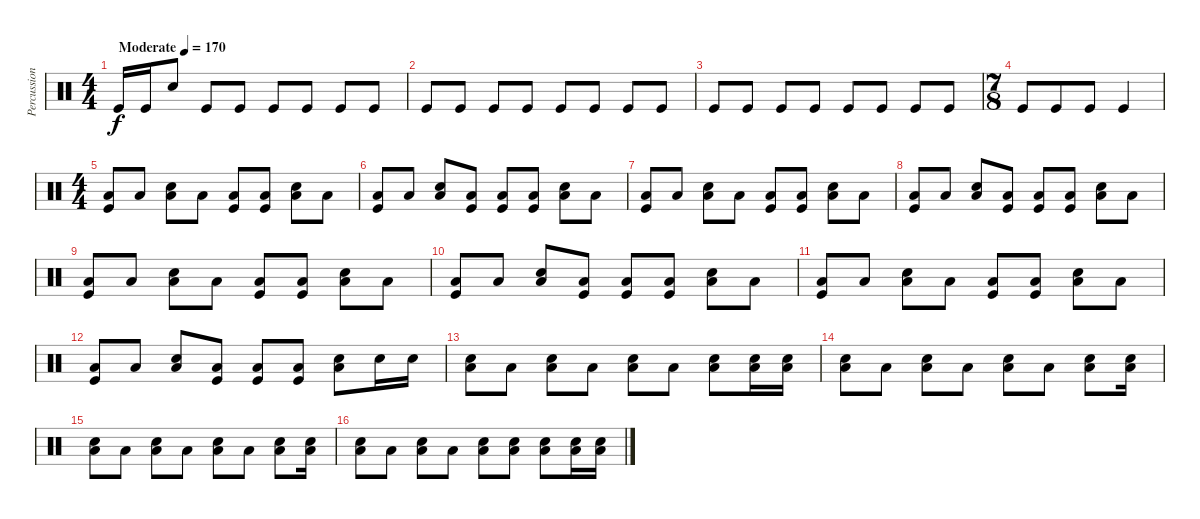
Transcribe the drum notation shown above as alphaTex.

\track ("Percussion" "Percussion") {instrument percussion}
\staff {score}
\articulation defaults
\ts (4 4)
\tempo (170 "Moderate")
\clef neutral
\ks c "Kick (hit)".16{dy f} "Kick (hit)".16 "Electric Snare (hit)".8 "Kick (hit)".8 "Kick (hit)".8 "Kick (hit)".8 "Kick (hit)".8 "Kick (hit)".8 "Kick (hit)".8
|
"Kick (hit)".8 "Kick (hit)".8 "Kick (hit)".8 "Kick (hit)".8 "Kick (hit)".8 "Kick (hit)".8 "Kick (hit)".8 "Kick (hit)".8 |
"Kick (hit)".8 "Kick (hit)".8 "Kick (hit)".8 "Kick (hit)".8 "Kick (hit)".8 "Kick (hit)".8 "Kick (hit)".8 "Kick (hit)".8 |
\ts (7 8)
"Kick (hit)".8 "Kick (hit)".8 "Kick (hit)".8 "Kick (hit)".4 |
\ts (4 4)
("Low Floor Tom (hit)" "Kick (hit)").8 "Low Floor Tom (hit)".8 ("Low Floor Tom (hit)" "Electric Snare (hit)").8 "Low Floor Tom (hit)".8 ("Low Floor Tom (hit)" "Kick (hit)").8 ("Low Floor Tom (hit)" "Kick (hit)").8 ("Low Floor Tom (hit)" "Electric Snare (hit)").8 "Low Floor Tom (hit)".8 |
("Low Floor Tom (hit)" "Kick (hit)").8 "Low Floor Tom (hit)".8 ("Low Floor Tom (hit)" "Electric Snare (hit)").8 ("Low Floor Tom (hit)" "Kick (hit)").8 ("Low Floor Tom (hit)" "Kick (hit)").8 ("Low Floor Tom (hit)" "Kick (hit)").8 ("Low Floor Tom (hit)" "Electric Snare (hit)").8 "Low Floor Tom (hit)".8 |
("Low Floor Tom (hit)" "Kick (hit)").8 "Low Floor Tom (hit)".8 ("Low Floor Tom (hit)" "Electric Snare (hit)").8 "Low Floor Tom (hit)".8 ("Low Floor Tom (hit)" "Kick (hit)").8 ("Low Floor Tom (hit)" "Kick (hit)").8 ("Low Floor Tom (hit)" "Electric Snare (hit)").8 "Low Floor Tom (hit)".8 |
("Low Floor Tom (hit)" "Kick (hit)").8 "Low Floor Tom (hit)".8 ("Low Floor Tom (hit)" "Electric Snare (hit)").8 ("Low Floor Tom (hit)" "Kick (hit)").8 ("Low Floor Tom (hit)" "Kick (hit)").8 ("Low Floor Tom (hit)" "Kick (hit)").8 ("Low Floor Tom (hit)" "Electric Snare (hit)").8 "Low Floor Tom (hit)".8 |
("Low Floor Tom (hit)" "Kick (hit)").8 "Low Floor Tom (hit)".8 ("Low Floor Tom (hit)" "Electric Snare (hit)").8 "Low Floor Tom (hit)".8 ("Low Floor Tom (hit)" "Kick (hit)").8 ("Low Floor Tom (hit)" "Kick (hit)").8 ("Low Floor Tom (hit)" "Electric Snare (hit)").8 "Low Floor Tom (hit)".8 |
("Low Floor Tom (hit)" "Kick (hit)").8 "Low Floor Tom (hit)".8 ("Low Floor Tom (hit)" "Electric Snare (hit)").8 ("Low Floor Tom (hit)" "Kick (hit)").8 ("Low Floor Tom (hit)" "Kick (hit)").8 ("Low Floor Tom (hit)" "Kick (hit)").8 ("Low Floor Tom (hit)" "Electric Snare (hit)").8 "Low Floor Tom (hit)".8 |
("Low Floor Tom (hit)" "Kick (hit)").8 "Low Floor Tom (hit)".8 ("Low Floor Tom (hit)" "Electric Snare (hit)").8 "Low Floor Tom (hit)".8 ("Low Floor Tom (hit)" "Kick (hit)").8 ("Low Floor Tom (hit)" "Kick (hit)").8 ("Low Floor Tom (hit)" "Electric Snare (hit)").8 "Low Floor Tom (hit)".8 |
("Low Floor Tom (hit)" "Kick (hit)").8 "Low Floor Tom (hit)".8 ("Low Floor Tom (hit)" "Electric Snare (hit)").8 ("Low Floor Tom (hit)" "Kick (hit)").8 ("Low Floor Tom (hit)" "Kick (hit)").8 ("Low Floor Tom (hit)" "Kick (hit)").8 ("Low Floor Tom (hit)" "Electric Snare (hit)").8 "Electric Snare (hit)".16 "Electric Snare (hit)".16 |
("Low Floor Tom (hit)" "Electric Snare (hit)").8 "Low Floor Tom (hit)".8 ("Low Floor Tom (hit)" "Electric Snare (hit)").8 "Low Floor Tom (hit)".8 ("Low Floor Tom (hit)" "Electric Snare (hit)").8 "Low Floor Tom (hit)".8 ("Low Floor Tom (hit)" "Electric Snare (hit)").8 ("Low Floor Tom (hit)" "Electric Snare (hit)").16 ("Low Floor Tom (hit)" "Electric Snare (hit)").16 |
("Low Floor Tom (hit)" "Electric Snare (hit)").8 "Low Floor Tom (hit)".8 ("Low Floor Tom (hit)" "Electric Snare (hit)").8 "Low Floor Tom (hit)".8 ("Low Floor Tom (hit)" "Electric Snare (hit)").8 "Low Floor Tom (hit)".8 ("Low Floor Tom (hit)" "Electric Snare (hit)").8 ("Low Floor Tom (hit)" "Electric Snare (hit)").16 |
("Low Floor Tom (hit)" "Electric Snare (hit)").8 "Low Floor Tom (hit)".8 ("Low Floor Tom (hit)" "Electric Snare (hit)").8 "Low Floor Tom (hit)".8 ("Low Floor Tom (hit)" "Electric Snare (hit)").8 "Low Floor Tom (hit)".8 ("Low Floor Tom (hit)" "Electric Snare (hit)").8 ("Low Floor Tom (hit)" "Electric Snare (hit)").16 |
("Low Floor Tom (hit)" "Electric Snare (hit)").8 "Low Floor Tom (hit)".8 ("Low Floor Tom (hit)" "Electric Snare (hit)").8 "Low Floor Tom (hit)".8 ("Low Floor Tom (hit)" "Electric Snare (hit)").8 ("Low Floor Tom (hit)" "Electric Snare (hit)").8 ("Low Floor Tom (hit)" "Electric Snare (hit)").8 ("Low Floor Tom (hit)" "Electric Snare (hit)").16 ("Low Floor Tom (hit)" "Electric Snare (hit)").16
